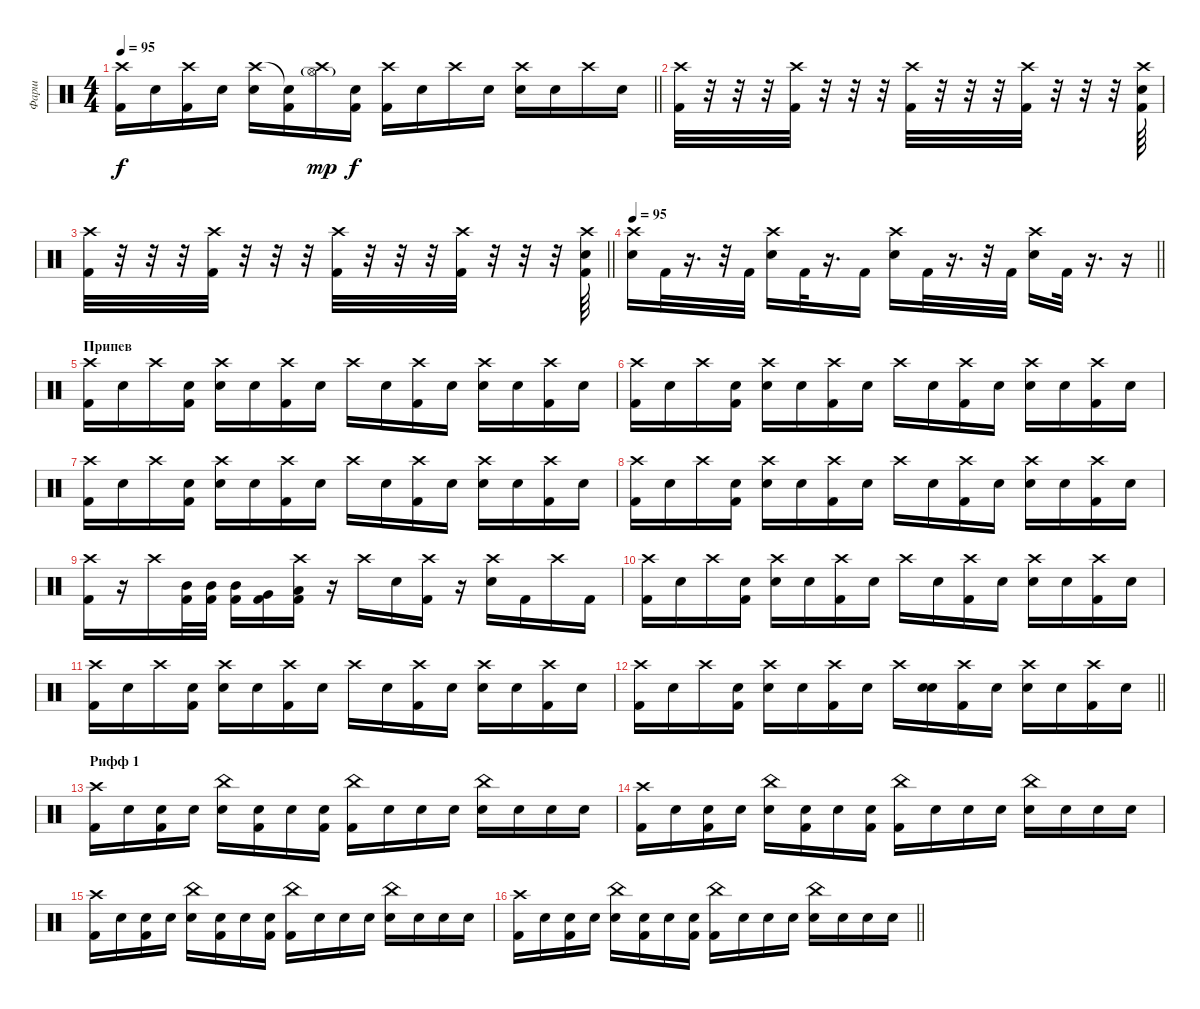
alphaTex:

\track ("Фарш" "Фарш") {instrument percussion}
\staff {score}
\articulation defaults
\ts (4 4)
\tempo 95
\clef neutral
\barLineRight lightlight
\ks c
("Crash high (hit)" "Kick (hit) 2").16{dy f} "Snare (hit)".16 ("Crash high (hit)" "Kick (hit) 2").16 "Snare (hit)".16 ("Crash high (hit)" "Electric Snare (hit)").16 ("Snare (hit)"{t} "Kick (hit) 2").16 ("Crash high (hit)" "Hi-Hat (open)"{g}).16{dy mp} ("Snare (hit)" "Kick (hit) 2").16{dy f} ("Crash high (hit)" "Kick (hit) 2").16 "Snare (hit)".16 "Crash high (hit)".16 "Snare (hit)".16 ("Crash high (hit)" "Electric Snare (hit)").16 "Snare (hit)".16 "Crash high (hit)".16 "Snare (hit)".16 |
\section ("" "")
("Crash high (hit)" "Kick (hit) 2").32 r.32 r.32 r.32 ("Crash high (hit)" "Kick (hit) 2").32 r.32 r.32 r.32 ("Crash high (hit)" "Kick (hit) 2").32 r.32 r.32 r.32 ("Crash high (hit)" "Kick (hit) 2").32 r.32 r.32 r.32 ("Crash high (hit)" "Electric Snare (hit)" "Kick (hit) 2").64 |
\barLineRight lightlight
("Crash high (hit)" "Kick (hit) 2").32 r.32 r.32 r.32 ("Crash high (hit)" "Kick (hit) 2").32 r.32 r.32 r.32 ("Crash high (hit)" "Kick (hit) 2").32 r.32 r.32 r.32 ("Crash high (hit)" "Kick (hit) 2").32 r.32 r.32 r.32 ("Crash high (hit)" "Electric Snare (hit)" "Kick (hit) 2").64 |
\section ("" "")
\tempo 95
\barLineRight lightlight
("Crash high (hit)" "Electric Snare (hit)").16 "Kick (hit) 2".32 r.16{d} r.32 "Kick (hit) 2".32 ("Crash high (hit)" "Electric Snare (hit)").16 "Kick (hit) 2".32 r.16{d} "Kick (hit) 2".16 ("Crash high (hit)" "Electric Snare (hit)").16 "Kick (hit) 2".32 r.16{d} r.32 "Kick (hit) 2".32 ("Crash high (hit)" "Electric Snare (hit)").16 "Kick (hit) 2".32 r.16{d} r.16 |
\section ("" "Припев")
("Crash high (hit)" "Kick (hit) 2").16 "Snare (hit)".16 "Crash high (hit)".16 ("Snare (hit)" "Kick (hit) 2").16 ("Crash high (hit)" "Electric Snare (hit)").16 "Snare (hit)".16 ("Crash high (hit)" "Kick (hit) 2").16 "Snare (hit)".16 "Crash high (hit)".16 "Snare (hit)".16 ("Crash high (hit)" "Kick (hit) 2").16 "Snare (hit)".16 ("Crash high (hit)" "Electric Snare (hit)").16 "Snare (hit)".16 ("Crash high (hit)" "Kick (hit) 2").16 "Snare (hit)".16 |
("Crash high (hit)" "Kick (hit) 2").16 "Snare (hit)".16 "Crash high (hit)".16 ("Snare (hit)" "Kick (hit) 2").16 ("Crash high (hit)" "Electric Snare (hit)").16 "Snare (hit)".16 ("Crash high (hit)" "Kick (hit) 2").16 "Snare (hit)".16 "Crash high (hit)".16 "Snare (hit)".16 ("Crash high (hit)" "Kick (hit) 2").16 "Snare (hit)".16 ("Crash high (hit)" "Electric Snare (hit)").16 "Snare (hit)".16 ("Crash high (hit)" "Kick (hit) 2").16 "Snare (hit)".16 |
("Crash high (hit)" "Kick (hit) 2").16 "Snare (hit)".16 "Crash high (hit)".16 ("Snare (hit)" "Kick (hit) 2").16 ("Crash high (hit)" "Electric Snare (hit)").16 "Snare (hit)".16 ("Crash high (hit)" "Kick (hit) 2").16 "Snare (hit)".16 "Crash high (hit)".16 "Snare (hit)".16 ("Crash high (hit)" "Kick (hit) 2").16 "Snare (hit)".16 ("Crash high (hit)" "Electric Snare (hit)").16 "Snare (hit)".16 ("Crash high (hit)" "Kick (hit) 2").16 "Snare (hit)".16 |
("Crash high (hit)" "Kick (hit) 2").16 "Snare (hit)".16 "Crash high (hit)".16 ("Snare (hit)" "Kick (hit) 2").16 ("Crash high (hit)" "Electric Snare (hit)").16 "Snare (hit)".16 ("Crash high (hit)" "Kick (hit) 2").16 "Snare (hit)".16 "Crash high (hit)".16 "Snare (hit)".16 ("Crash high (hit)" "Kick (hit) 2").16 "Snare (hit)".16 ("Crash high (hit)" "Electric Snare (hit)").16 "Snare (hit)".16 ("Crash high (hit)" "Kick (hit) 2").16 "Snare (hit)".16 |
("Crash high (hit)" "Kick (hit) 2").16 r.16 "Crash high (hit)".16 ("Mid Tom (hit)" "Kick (hit) 2").32 ("Mid Tom (hit)" "Kick (hit) 2").32 ("Mid Tom (hit)" "Kick (hit) 2").16 ("Very Low Tom (hit)" "Kick (hit) 2").16 ("Crash high (hit)" "Low Floor Tom (hit)" "Kick (hit) 2").16 r.16 "Crash high (hit)".16 "Electric Snare (hit)".16 ("Crash high (hit)" "Kick (hit) 2").16 r.16 ("Crash high (hit)" "Electric Snare (hit)").16 "Kick (hit) 2".16 "Crash high (hit)".16 "Kick (hit) 2".16 |
("Crash high (hit)" "Kick (hit) 2").16 "Snare (hit)".16 "Crash high (hit)".16 ("Snare (hit)" "Kick (hit) 2").16 ("Crash high (hit)" "Electric Snare (hit)").16 "Snare (hit)".16 ("Crash high (hit)" "Kick (hit) 2").16 "Snare (hit)".16 "Crash high (hit)".16 "Snare (hit)".16 ("Crash high (hit)" "Kick (hit) 2").16 "Snare (hit)".16 ("Crash high (hit)" "Electric Snare (hit)").16 "Snare (hit)".16 ("Crash high (hit)" "Kick (hit) 2").16 "Snare (hit)".16 |
("Crash high (hit)" "Kick (hit) 2").16 "Snare (hit)".16 "Crash high (hit)".16 ("Snare (hit)" "Kick (hit) 2").16 ("Crash high (hit)" "Electric Snare (hit)").16 "Snare (hit)".16 ("Crash high (hit)" "Kick (hit) 2").16 "Snare (hit)".16 "Crash high (hit)".16 "Snare (hit)".16 ("Crash high (hit)" "Kick (hit) 2").16 "Snare (hit)".16 ("Crash high (hit)" "Electric Snare (hit)").16 "Snare (hit)".16 ("Crash high (hit)" "Kick (hit) 2").16 "Snare (hit)".16 |
\barLineRight lightlight
("Crash high (hit)" "Kick (hit) 2").16 "Snare (hit)".16 "Crash high (hit)".16 ("Snare (hit)" "Kick (hit) 2").16 ("Crash high (hit)" "Electric Snare (hit)").16 "Snare (hit)".16 ("Crash high (hit)" "Kick (hit) 2").16 "Snare (hit)".16 "Crash high (hit)".16 ("Snare (hit)" "Electric Snare (hit)").16 ("Crash high (hit)" "Kick (hit) 2").16 "Snare (hit)".16 ("Crash high (hit)" "Electric Snare (hit)").16 "Snare (hit)".16 ("Crash high (hit)" "Kick (hit) 2").16 "Snare (hit)".16 |
\section ("" "Рифф 1")
("Crash high (hit)" "Kick (hit) 2").16 "Snare (hit)".16 ("Snare (hit)" "Kick (hit) 2").16 "Snare (hit)".16 ("China (hit)" "Electric Snare (hit)").16 ("Snare (hit)" "Kick (hit) 2").16 "Snare (hit)".16 ("Snare (hit)" "Kick (hit) 2").16 ("China (hit)" "Kick (hit) 2").16 "Snare (hit)".16 "Snare (hit)".16 "Snare (hit)".16 ("China (hit)" "Electric Snare (hit)").16 "Snare (hit)".16 "Snare (hit)".16 "Snare (hit)".16 |
("Crash high (hit)" "Kick (hit) 2").16 "Snare (hit)".16 ("Snare (hit)" "Kick (hit) 2").16 "Snare (hit)".16 ("China (hit)" "Electric Snare (hit)").16 ("Snare (hit)" "Kick (hit) 2").16 "Snare (hit)".16 ("Snare (hit)" "Kick (hit) 2").16 ("China (hit)" "Kick (hit) 2").16 "Snare (hit)".16 "Snare (hit)".16 "Snare (hit)".16 ("China (hit)" "Electric Snare (hit)").16 "Snare (hit)".16 "Snare (hit)".16 "Snare (hit)".16 |
("Crash high (hit)" "Kick (hit) 2").16 "Snare (hit)".16 ("Snare (hit)" "Kick (hit) 2").16 "Snare (hit)".16 ("China (hit)" "Electric Snare (hit)").16 ("Snare (hit)" "Kick (hit) 2").16 "Snare (hit)".16 ("Snare (hit)" "Kick (hit) 2").16 ("China (hit)" "Kick (hit) 2").16 "Snare (hit)".16 "Snare (hit)".16 "Snare (hit)".16 ("China (hit)" "Electric Snare (hit)").16 "Snare (hit)".16 "Snare (hit)".16 "Snare (hit)".16 |
\barLineRight lightlight
("Crash high (hit)" "Kick (hit) 2").16 "Snare (hit)".16 ("Snare (hit)" "Kick (hit) 2").16 "Snare (hit)".16 ("China (hit)" "Electric Snare (hit)").16 ("Snare (hit)" "Kick (hit) 2").16 "Snare (hit)".16 ("Snare (hit)" "Kick (hit) 2").16 ("China (hit)" "Kick (hit) 2").16 "Snare (hit)".16 "Snare (hit)".16 "Snare (hit)".16 ("China (hit)" "Electric Snare (hit)").16 "Snare (hit)".16 "Snare (hit)".16 "Snare (hit)".16
